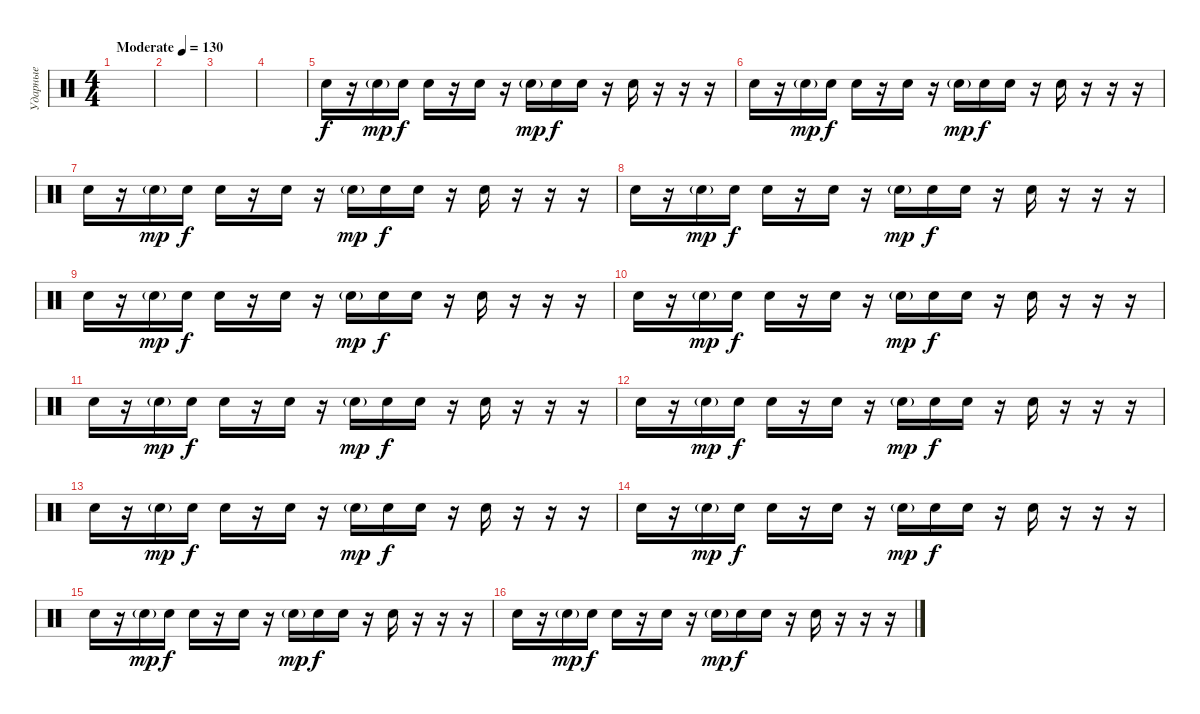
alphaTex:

\track ("Ударные" "Ударные") {instrument percussion}
\staff {score}
\articulation defaults
\ts (4 4)
\tempo (130 "Moderate")
\clef neutral
\ks c
|
|
|
|
"Electric Snare (hit)".16 r.16 "Electric Snare (hit)"{g}.16{dy mp} "Electric Snare (hit)".16{dy f} "Electric Snare (hit)".16 r.16 "Electric Snare (hit)".16 r.16 "Electric Snare (hit)"{g}.16{dy mp} "Electric Snare (hit)".16{dy f} "Electric Snare (hit)".16 r.16 "Electric Snare (hit)".16 r.16 r.16 r.16 |
"Electric Snare (hit)".16 r.16 "Electric Snare (hit)"{g}.16{dy mp} "Electric Snare (hit)".16{dy f} "Electric Snare (hit)".16 r.16 "Electric Snare (hit)".16 r.16 "Electric Snare (hit)"{g}.16{dy mp} "Electric Snare (hit)".16{dy f} "Electric Snare (hit)".16 r.16 "Electric Snare (hit)".16 r.16 r.16 r.16 |
"Electric Snare (hit)".16 r.16 "Electric Snare (hit)"{g}.16{dy mp} "Electric Snare (hit)".16{dy f} "Electric Snare (hit)".16 r.16 "Electric Snare (hit)".16 r.16 "Electric Snare (hit)"{g}.16{dy mp} "Electric Snare (hit)".16{dy f} "Electric Snare (hit)".16 r.16 "Electric Snare (hit)".16 r.16 r.16 r.16 |
"Electric Snare (hit)".16 r.16 "Electric Snare (hit)"{g}.16{dy mp} "Electric Snare (hit)".16{dy f} "Electric Snare (hit)".16 r.16 "Electric Snare (hit)".16 r.16 "Electric Snare (hit)"{g}.16{dy mp} "Electric Snare (hit)".16{dy f} "Electric Snare (hit)".16 r.16 "Electric Snare (hit)".16 r.16 r.16 r.16 |
"Electric Snare (hit)".16 r.16 "Electric Snare (hit)"{g}.16{dy mp} "Electric Snare (hit)".16{dy f} "Electric Snare (hit)".16 r.16 "Electric Snare (hit)".16 r.16 "Electric Snare (hit)"{g}.16{dy mp} "Electric Snare (hit)".16{dy f} "Electric Snare (hit)".16 r.16 "Electric Snare (hit)".16 r.16 r.16 r.16 |
"Electric Snare (hit)".16 r.16 "Electric Snare (hit)"{g}.16{dy mp} "Electric Snare (hit)".16{dy f} "Electric Snare (hit)".16 r.16 "Electric Snare (hit)".16 r.16 "Electric Snare (hit)"{g}.16{dy mp} "Electric Snare (hit)".16{dy f} "Electric Snare (hit)".16 r.16 "Electric Snare (hit)".16 r.16 r.16 r.16 |
"Electric Snare (hit)".16 r.16 "Electric Snare (hit)"{g}.16{dy mp} "Electric Snare (hit)".16{dy f} "Electric Snare (hit)".16 r.16 "Electric Snare (hit)".16 r.16 "Electric Snare (hit)"{g}.16{dy mp} "Electric Snare (hit)".16{dy f} "Electric Snare (hit)".16 r.16 "Electric Snare (hit)".16 r.16 r.16 r.16 |
"Electric Snare (hit)".16 r.16 "Electric Snare (hit)"{g}.16{dy mp} "Electric Snare (hit)".16{dy f} "Electric Snare (hit)".16 r.16 "Electric Snare (hit)".16 r.16 "Electric Snare (hit)"{g}.16{dy mp} "Electric Snare (hit)".16{dy f} "Electric Snare (hit)".16 r.16 "Electric Snare (hit)".16 r.16 r.16 r.16 |
"Electric Snare (hit)".16 r.16 "Electric Snare (hit)"{g}.16{dy mp} "Electric Snare (hit)".16{dy f} "Electric Snare (hit)".16 r.16 "Electric Snare (hit)".16 r.16 "Electric Snare (hit)"{g}.16{dy mp} "Electric Snare (hit)".16{dy f} "Electric Snare (hit)".16 r.16 "Electric Snare (hit)".16 r.16 r.16 r.16 |
"Electric Snare (hit)".16 r.16 "Electric Snare (hit)"{g}.16{dy mp} "Electric Snare (hit)".16{dy f} "Electric Snare (hit)".16 r.16 "Electric Snare (hit)".16 r.16 "Electric Snare (hit)"{g}.16{dy mp} "Electric Snare (hit)".16{dy f} "Electric Snare (hit)".16 r.16 "Electric Snare (hit)".16 r.16 r.16 r.16 |
"Electric Snare (hit)".16 r.16 "Electric Snare (hit)"{g}.16{dy mp} "Electric Snare (hit)".16{dy f} "Electric Snare (hit)".16 r.16 "Electric Snare (hit)".16 r.16 "Electric Snare (hit)"{g}.16{dy mp} "Electric Snare (hit)".16{dy f} "Electric Snare (hit)".16 r.16 "Electric Snare (hit)".16 r.16 r.16 r.16 |
"Electric Snare (hit)".16 r.16 "Electric Snare (hit)"{g}.16{dy mp} "Electric Snare (hit)".16{dy f} "Electric Snare (hit)".16 r.16 "Electric Snare (hit)".16 r.16 "Electric Snare (hit)"{g}.16{dy mp} "Electric Snare (hit)".16{dy f} "Electric Snare (hit)".16 r.16 "Electric Snare (hit)".16 r.16 r.16 r.16
